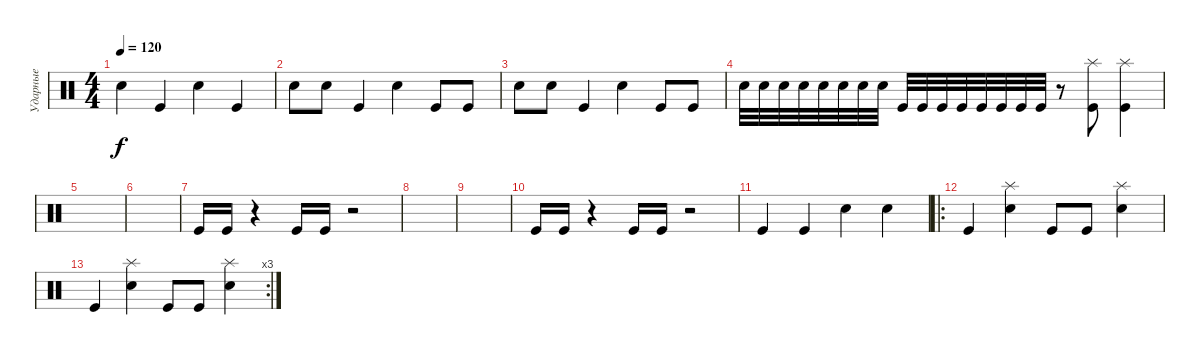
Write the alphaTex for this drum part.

\track ("Ударные" "Ударные") {instrument percussion}
\staff {score}
\articulation defaults
\ts (4 4)
\tempo 120
\clef neutral
\ks c "Electric Snare (hit)".4{dy f} "Kick (hit)".4 "Electric Snare (hit)".4 "Kick (hit)".4
|
"Electric Snare (hit)".8 "Electric Snare (hit)".8 "Kick (hit)".4 "Electric Snare (hit)".4 "Kick (hit)".8 "Kick (hit)".8 |
"Electric Snare (hit)".8 "Electric Snare (hit)".8 "Kick (hit)".4 "Electric Snare (hit)".4 "Kick (hit)".8 "Kick (hit)".8 |
"Electric Snare (hit)".32 "Electric Snare (hit)".32 "Electric Snare (hit)".32 "Electric Snare (hit)".32 "Electric Snare (hit)".32 "Electric Snare (hit)".32 "Electric Snare (hit)".32 "Electric Snare (hit)".32 "Kick (hit)".32 "Kick (hit)".32 "Kick (hit)".32 "Kick (hit)".32 "Kick (hit)".32 "Kick (hit)".32 "Kick (hit)".32 "Kick (hit)".32 r.8 ("Kick (hit)" "Splash (hit)").8 ("Kick (hit)" "Splash (hit)").4 |
|
|
"Kick (hit)".16 "Kick (hit)".16 r.4 "Kick (hit)".16 "Kick (hit)".16 r.2 |
|
|
"Kick (hit)".16 "Kick (hit)".16 r.4 "Kick (hit)".16 "Kick (hit)".16 r.2 |
"Kick (hit)".4 "Kick (hit)".4 "Electric Snare (hit)".4 "Electric Snare (hit)".4 |
\ro "Kick (hit)".4
("Splash (hit)" "Electric Snare (hit)").4 "Kick (hit)".8 "Kick (hit)".8 ("Splash (hit)" "Electric Snare (hit)").4 |
\rc 3 "Kick (hit)".4
("Splash (hit)" "Electric Snare (hit)").4 "Kick (hit)".8 "Kick (hit)".8 ("Splash (hit)" "Electric Snare (hit)").4
